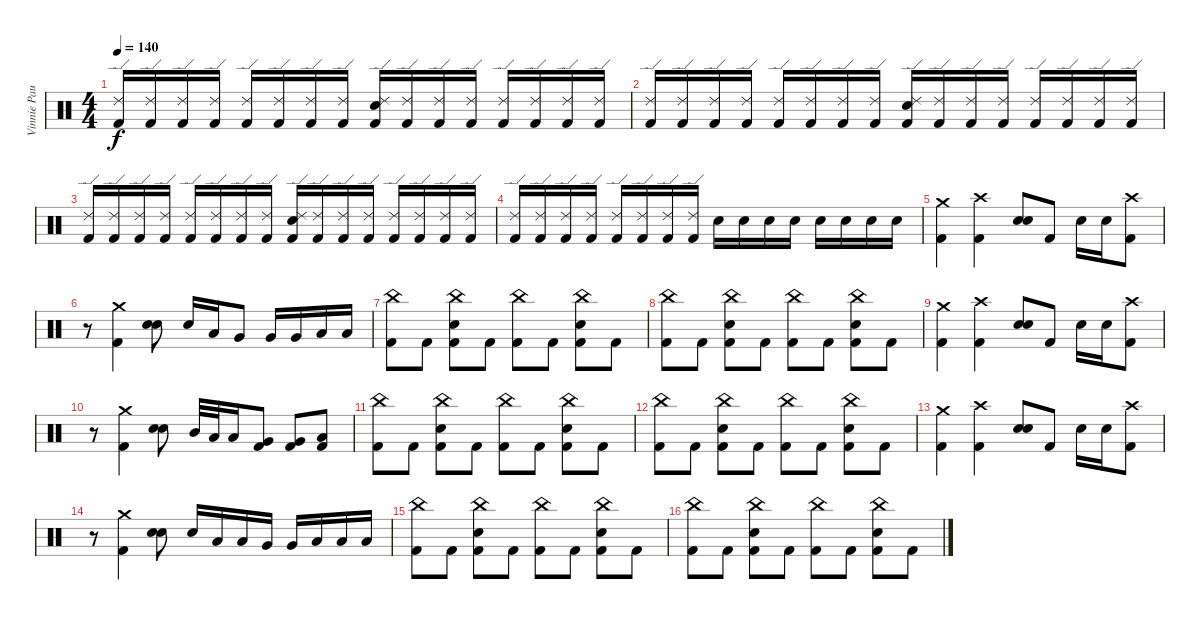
\track ("Vinnie Paul" "Vinnie Pau") {instrument percussion}
\staff {score}
\articulation defaults
\ts (4 4)
\tempo 140
\clef neutral
\ks c
("Ride (edge) 2" "Kick (hit) 2").16{dy f} ("Ride (edge) 2" "Kick (hit) 2").16 ("Ride (edge) 2" "Kick (hit) 2").16 ("Ride (edge) 2" "Kick (hit) 2").16 ("Ride (edge) 2" "Kick (hit) 2").16 ("Ride (edge) 2" "Kick (hit) 2").16 ("Ride (edge) 2" "Kick (hit) 2").16 ("Ride (edge) 2" "Kick (hit) 2").16 ("Ride (edge) 2" "Snare (hit) 2" "Kick (hit) 2").16 ("Ride (edge) 2" "Kick (hit) 2").16 ("Ride (edge) 2" "Kick (hit) 2").16 ("Ride (edge) 2" "Kick (hit) 2").16 ("Ride (edge) 2" "Kick (hit) 2").16 ("Ride (edge) 2" "Kick (hit) 2").16 ("Ride (edge) 2" "Kick (hit) 2").16 ("Ride (edge) 2" "Kick (hit) 2").16 |
("Ride (edge) 2" "Kick (hit) 2").16 ("Ride (edge) 2" "Kick (hit) 2").16 ("Ride (edge) 2" "Kick (hit) 2").16 ("Ride (edge) 2" "Kick (hit) 2").16 ("Ride (edge) 2" "Kick (hit) 2").16 ("Ride (edge) 2" "Kick (hit) 2").16 ("Ride (edge) 2" "Kick (hit) 2").16 ("Ride (edge) 2" "Kick (hit) 2").16 ("Ride (edge) 2" "Snare (hit) 2" "Kick (hit) 2").16 ("Ride (edge) 2" "Kick (hit) 2").16 ("Ride (edge) 2" "Kick (hit) 2").16 ("Ride (edge) 2" "Kick (hit) 2").16 ("Ride (edge) 2" "Kick (hit) 2").16 ("Ride (edge) 2" "Kick (hit) 2").16 ("Ride (edge) 2" "Kick (hit) 2").16 ("Ride (edge) 2" "Kick (hit) 2").16 |
("Ride (edge) 2" "Kick (hit) 2").16 ("Ride (edge) 2" "Kick (hit) 2").16 ("Ride (edge) 2" "Kick (hit) 2").16 ("Ride (edge) 2" "Kick (hit) 2").16 ("Ride (edge) 2" "Kick (hit) 2").16 ("Ride (edge) 2" "Kick (hit) 2").16 ("Ride (edge) 2" "Kick (hit) 2").16 ("Ride (edge) 2" "Kick (hit) 2").16 ("Ride (edge) 2" "Snare (hit) 2" "Kick (hit) 2").16 ("Ride (edge) 2" "Kick (hit) 2").16 ("Ride (edge) 2" "Kick (hit) 2").16 ("Ride (edge) 2" "Kick (hit) 2").16 ("Ride (edge) 2" "Kick (hit) 2").16 ("Ride (edge) 2" "Kick (hit) 2").16 ("Ride (edge) 2" "Kick (hit) 2").16 ("Ride (edge) 2" "Kick (hit) 2").16 |
("Ride (edge) 2" "Kick (hit) 2").16 ("Ride (edge) 2" "Kick (hit) 2").16 ("Ride (edge) 2" "Kick (hit) 2").16 ("Ride (edge) 2" "Kick (hit) 2").16 ("Ride (edge) 2" "Kick (hit) 2").16 ("Ride (edge) 2" "Kick (hit) 2").16 ("Ride (edge) 2" "Kick (hit) 2").16 ("Ride (edge) 2" "Kick (hit) 2").16 "Snare (hit) 2".16 "Snare (hit) 2".16 "Snare (hit) 2".16 "Snare (hit) 2".16 "Snare (hit) 2".16 "Snare (hit) 2".16 "Snare (hit) 2".16 "Snare (hit) 2".16 |
("Crash medium (hit)" "Kick (hit) 2").4 ("Crash high (hit)" "Kick (hit) 2").4 ("Snare (hit) 2" "Snare (hit) 2").8{bd 120} "Kick (hit) 2".8 "Snare (hit) 2".16 "Snare (hit) 2".16 ("Crash high (hit)" "Kick (hit) 2").8 |
r.8 ("Crash medium (hit)" "Kick (hit) 2").4 ("Snare (hit) 2" "Snare (hit) 2").8{bd 120} "Snare (hit) 2".16 "Low Tom (hit)".16 "Very Low Tom (hit)".8 "Very Low Tom (hit)".16 "Very Low Tom (hit)".16 "Low Floor Tom (hit)".16 "Low Floor Tom (hit)".16 |
("China (hit)" "Kick (hit) 2").8 "Kick (hit) 2".8 ("China (hit)" "Snare (hit) 2" "Kick (hit) 2").8 "Kick (hit) 2".8 ("China (hit)" "Kick (hit) 2").8 "Kick (hit) 2".8 ("China (hit)" "Snare (hit) 2" "Kick (hit) 2").8 "Kick (hit) 2".8 |
("China (hit)" "Kick (hit) 2").8 "Kick (hit) 2".8 ("China (hit)" "Snare (hit) 2" "Kick (hit) 2").8 "Kick (hit) 2".8 ("China (hit)" "Kick (hit) 2").8 "Kick (hit) 2".8 ("China (hit)" "Snare (hit) 2" "Kick (hit) 2").8 "Kick (hit) 2".8 |
("Crash medium (hit)" "Kick (hit) 2").4 ("Crash high (hit)" "Kick (hit) 2").4 ("Snare (hit) 2" "Snare (hit) 2").8{bd 120} "Kick (hit) 2".8 "Snare (hit) 2".16 "Snare (hit) 2".16 ("Crash high (hit)" "Kick (hit) 2").8 |
r.8 ("Crash medium (hit)" "Kick (hit) 2").4 ("Snare (hit) 2" "Snare (hit) 2").8{bd 120} "Mid Tom (hit)".32 "Low Tom (hit)".32 "Low Tom (hit)".16 ("Very Low Tom (hit)" "Kick (hit) 2").8 ("Very Low Tom (hit)" "Kick (hit) 2").8 ("Low Floor Tom (hit)" "Kick (hit) 2").8 |
("China (hit)" "Kick (hit) 2").8 "Kick (hit) 2".8 ("China (hit)" "Snare (hit) 2" "Kick (hit) 2").8 "Kick (hit) 2".8 ("China (hit)" "Kick (hit) 2").8 "Kick (hit) 2".8 ("China (hit)" "Snare (hit) 2" "Kick (hit) 2").8 "Kick (hit) 2".8 |
("China (hit)" "Kick (hit) 2").8 "Kick (hit) 2".8 ("China (hit)" "Snare (hit) 2" "Kick (hit) 2").8 "Kick (hit) 2".8 ("China (hit)" "Kick (hit) 2").8 "Kick (hit) 2".8 ("China (hit)" "Snare (hit) 2" "Kick (hit) 2").8 "Kick (hit) 2".8 |
("Crash medium (hit)" "Kick (hit) 2").4 ("Crash high (hit)" "Kick (hit) 2").4 ("Snare (hit) 2" "Snare (hit) 2").8{bd 120} "Kick (hit) 2".8 "Snare (hit) 2".16 "Snare (hit) 2".16 ("Crash high (hit)" "Kick (hit) 2").8 |
r.8 ("Crash medium (hit)" "Kick (hit) 2").4 ("Snare (hit) 2" "Snare (hit) 2").8{bd 120} "Snare (hit) 2".16 "Low Tom (hit)".16 "Low Tom (hit)".16 "Very Low Tom (hit)".16 "Very Low Tom (hit)".16 "Low Floor Tom (hit)".16 "Low Floor Tom (hit)".16 "Low Floor Tom (hit)".16 |
("China (hit)" "Kick (hit) 2").8 "Kick (hit) 2".8 ("China (hit)" "Snare (hit) 2" "Kick (hit) 2").8 "Kick (hit) 2".8 ("China (hit)" "Kick (hit) 2").8 "Kick (hit) 2".8 ("China (hit)" "Snare (hit) 2" "Kick (hit) 2").8 "Kick (hit) 2".8 |
("China (hit)" "Kick (hit) 2").8 "Kick (hit) 2".8 ("China (hit)" "Snare (hit) 2" "Kick (hit) 2").8 "Kick (hit) 2".8 ("China (hit)" "Kick (hit) 2").8 "Kick (hit) 2".8 ("China (hit)" "Snare (hit) 2" "Kick (hit) 2").8 "Kick (hit) 2".8
